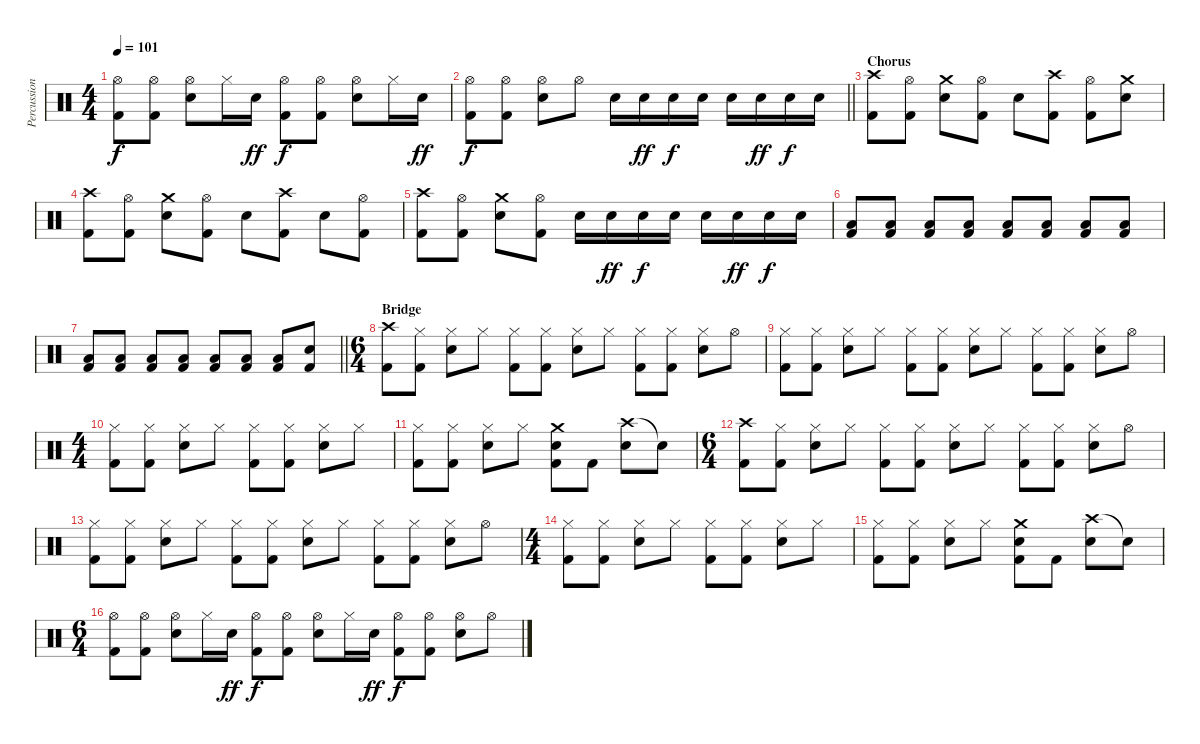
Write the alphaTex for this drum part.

\track ("Percussion" "Percussion") {instrument percussion}
\staff {score}
\articulation defaults
\ts (4 4)
\tempo 101
\clef neutral
\ks c
("Hi-Hat (open)" "Kick (hit) 2").8{dy f} ("Hi-Hat (open)" "Kick (hit) 2").8 ("Hi-Hat (open)" "Electric Snare (hit)").8 "Hi-Hat (closed)".16 "Electric Snare (hit)".16{dy ff} ("Hi-Hat (open)" "Kick (hit) 2").8{dy f} ("Hi-Hat (open)" "Kick (hit) 2").8 ("Hi-Hat (open)" "Electric Snare (hit)").8 "Hi-Hat (closed)".16 "Electric Snare (hit)".16{dy ff} |
\barLineRight lightlight
("Hi-Hat (open)" "Kick (hit) 2").8{dy f} ("Hi-Hat (open)" "Kick (hit) 2").8 ("Hi-Hat (open)" "Electric Snare (hit)").8 "Hi-Hat (open)".8 "Electric Snare (hit)".16 "Electric Snare (hit)".16{dy ff} "Electric Snare (hit)".16{dy f} "Electric Snare (hit)".16 "Electric Snare (hit)".16 "Electric Snare (hit)".16{dy ff} "Electric Snare (hit)".16{dy f} "Electric Snare (hit)".16 |
\section ("" "Chorus")
("Crash high (hit)" "Kick (hit) 2").8 ("Hi-Hat (open)" "Kick (hit) 2").8 ("Crash medium (hit)" "Electric Snare (hit)").8 ("Hi-Hat (open)" "Kick (hit) 2").8 "Electric Snare (hit)".8 ("Crash high (hit)" "Kick (hit) 2").8 ("Hi-Hat (open)" "Kick (hit) 2").8 ("Crash medium (hit)" "Electric Snare (hit)").8 |
("Crash high (hit)" "Kick (hit) 2").8 ("Hi-Hat (open)" "Kick (hit) 2").8 ("Crash medium (hit)" "Electric Snare (hit)").8 ("Hi-Hat (open)" "Kick (hit) 2").8 "Electric Snare (hit)".8 ("Crash high (hit)" "Kick (hit) 2").8 "Electric Snare (hit)".8 ("Hi-Hat (open)" "Kick (hit) 2").8 |
("Crash high (hit)" "Kick (hit) 2").8 ("Hi-Hat (open)" "Kick (hit) 2").8 ("Crash medium (hit)" "Electric Snare (hit)").8 ("Hi-Hat (open)" "Kick (hit) 2").8 "Electric Snare (hit)".16 "Electric Snare (hit)".16{dy ff} "Electric Snare (hit)".16{dy f} "Electric Snare (hit)".16 "Electric Snare (hit)".16 "Electric Snare (hit)".16{dy ff} "Electric Snare (hit)".16{dy f} "Electric Snare (hit)".16 |
("Low Floor Tom (hit)" "Kick (hit) 2").8 ("Low Floor Tom (hit)" "Kick (hit) 2").8 ("Low Floor Tom (hit)" "Kick (hit) 2").8 ("Low Floor Tom (hit)" "Kick (hit) 2").8 ("Low Floor Tom (hit)" "Kick (hit) 2").8 ("Low Floor Tom (hit)" "Kick (hit) 2").8 ("Low Floor Tom (hit)" "Kick (hit) 2").8 ("Low Floor Tom (hit)" "Kick (hit) 2").8 |
\barLineRight lightlight
("Low Floor Tom (hit)" "Kick (hit) 2").8 ("Low Floor Tom (hit)" "Kick (hit) 2").8 ("Low Floor Tom (hit)" "Kick (hit) 2").8 ("Low Floor Tom (hit)" "Kick (hit) 2").8 ("Low Floor Tom (hit)" "Kick (hit) 2").8 ("Low Floor Tom (hit)" "Kick (hit) 2").8 ("Low Floor Tom (hit)" "Kick (hit) 2").8 ("Electric Snare (hit)" "Kick (hit) 2").8 |
\ts (6 4)
\section ("" "Bridge")
("Crash high (hit)" "Kick (hit) 2").8 ("Hi-Hat (closed)" "Kick (hit) 2").8 ("Hi-Hat (closed)" "Electric Snare (hit)").8 "Hi-Hat (closed)".8 ("Hi-Hat (closed)" "Kick (hit) 2").8 ("Hi-Hat (closed)" "Kick (hit) 2").8 ("Hi-Hat (closed)" "Electric Snare (hit)").8 "Hi-Hat (closed)".8 ("Hi-Hat (closed)" "Kick (hit) 2").8 ("Hi-Hat (closed)" "Kick (hit) 2").8 ("Hi-Hat (closed)" "Electric Snare (hit)").8 "Hi-Hat (open)".8 |
("Hi-Hat (closed)" "Kick (hit) 2").8 ("Hi-Hat (closed)" "Kick (hit) 2").8 ("Hi-Hat (closed)" "Electric Snare (hit)").8 "Hi-Hat (closed)".8 ("Hi-Hat (closed)" "Kick (hit) 2").8 ("Hi-Hat (closed)" "Kick (hit) 2").8 ("Hi-Hat (closed)" "Electric Snare (hit)").8 "Hi-Hat (closed)".8 ("Hi-Hat (closed)" "Kick (hit) 2").8 ("Hi-Hat (closed)" "Kick (hit) 2").8 ("Hi-Hat (closed)" "Electric Snare (hit)").8 "Hi-Hat (open)".8 |
\ts (4 4)
("Hi-Hat (closed)" "Kick (hit) 2").8 ("Hi-Hat (closed)" "Kick (hit) 2").8 ("Hi-Hat (closed)" "Electric Snare (hit)").8 "Hi-Hat (closed)".8 ("Hi-Hat (closed)" "Kick (hit) 2").8 ("Hi-Hat (closed)" "Kick (hit) 2").8 ("Hi-Hat (closed)" "Electric Snare (hit)").8 "Hi-Hat (closed)".8 |
("Hi-Hat (closed)" "Kick (hit) 2").8 ("Hi-Hat (closed)" "Kick (hit) 2").8 ("Hi-Hat (closed)" "Electric Snare (hit)").8 "Hi-Hat (closed)".8 ("Crash medium (hit)" "Electric Snare (hit)" "Kick (hit) 2").8 "Kick (hit) 2".8 ("Crash high (hit)" "Electric Snare (hit)").8 "Snare (hit)"{t}.8 |
\ts (6 4)
("Crash high (hit)" "Kick (hit) 2").8 ("Hi-Hat (closed)" "Kick (hit) 2").8 ("Hi-Hat (closed)" "Electric Snare (hit)").8 "Hi-Hat (closed)".8 ("Hi-Hat (closed)" "Kick (hit) 2").8 ("Hi-Hat (closed)" "Kick (hit) 2").8 ("Hi-Hat (closed)" "Electric Snare (hit)").8 "Hi-Hat (closed)".8 ("Hi-Hat (closed)" "Kick (hit) 2").8 ("Hi-Hat (closed)" "Kick (hit) 2").8 ("Hi-Hat (closed)" "Electric Snare (hit)").8 "Hi-Hat (open)".8 |
("Hi-Hat (closed)" "Kick (hit) 2").8 ("Hi-Hat (closed)" "Kick (hit) 2").8 ("Hi-Hat (closed)" "Electric Snare (hit)").8 "Hi-Hat (closed)".8 ("Hi-Hat (closed)" "Kick (hit) 2").8 ("Hi-Hat (closed)" "Kick (hit) 2").8 ("Hi-Hat (closed)" "Electric Snare (hit)").8 "Hi-Hat (closed)".8 ("Hi-Hat (closed)" "Kick (hit) 2").8 ("Hi-Hat (closed)" "Kick (hit) 2").8 ("Hi-Hat (closed)" "Electric Snare (hit)").8 "Hi-Hat (open)".8 |
\ts (4 4)
("Hi-Hat (closed)" "Kick (hit) 2").8 ("Hi-Hat (closed)" "Kick (hit) 2").8 ("Hi-Hat (closed)" "Electric Snare (hit)").8 "Hi-Hat (closed)".8 ("Hi-Hat (closed)" "Kick (hit) 2").8 ("Hi-Hat (closed)" "Kick (hit) 2").8 ("Hi-Hat (closed)" "Electric Snare (hit)").8 "Hi-Hat (closed)".8 |
("Hi-Hat (closed)" "Kick (hit) 2").8 ("Hi-Hat (closed)" "Kick (hit) 2").8 ("Hi-Hat (closed)" "Electric Snare (hit)").8 "Hi-Hat (closed)".8 ("Crash medium (hit)" "Electric Snare (hit)" "Kick (hit) 2").8 "Kick (hit) 2".8 ("Crash high (hit)" "Electric Snare (hit)").8 "Snare (hit)"{t}.8 |
\ts (6 4)
("Hi-Hat (open)" "Kick (hit) 2").8 ("Hi-Hat (open)" "Kick (hit) 2").8 ("Hi-Hat (open)" "Electric Snare (hit)").8 "Hi-Hat (closed)".16 "Electric Snare (hit)".16{dy ff} ("Hi-Hat (open)" "Kick (hit) 2").8{dy f} ("Hi-Hat (open)" "Kick (hit) 2").8 ("Hi-Hat (open)" "Electric Snare (hit)").8 "Hi-Hat (closed)".16 "Electric Snare (hit)".16{dy ff} ("Hi-Hat (open)" "Kick (hit) 2").8{dy f} ("Hi-Hat (open)" "Kick (hit) 2").8 ("Hi-Hat (open)" "Electric Snare (hit)").8 "Hi-Hat (open)".8
